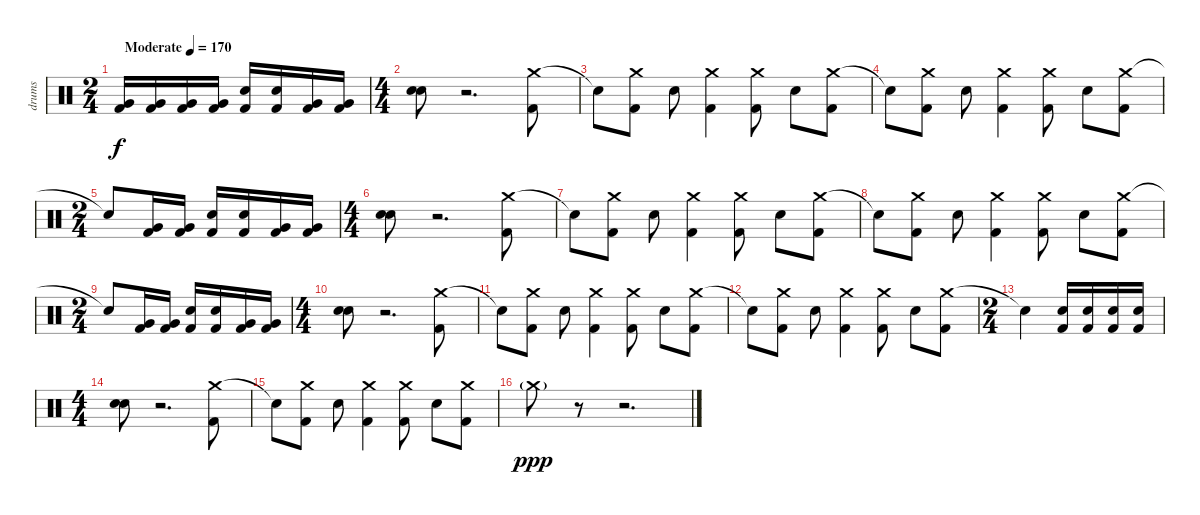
\track ("drums" "drums") {instrument percussion}
\staff {score}
\articulation defaults
\ts (2 4)
\tempo (170 "Moderate")
\clef neutral
\ks c
("Very Low Tom (hit)" "Kick (hit) 2").16{dy f} ("Very Low Tom (hit)" "Kick (hit) 2").16 ("Very Low Tom (hit)" "Kick (hit) 2").16 ("Very Low Tom (hit)" "Kick (hit) 2").16 ("Electric Snare (hit)" "Kick (hit) 2").16 ("Electric Snare (hit)" "Kick (hit) 2").16 ("Very Low Tom (hit)" "Kick (hit) 2").16 ("Very Low Tom (hit)" "Kick (hit) 2").16 |
\ts (4 4)
("Electric Snare (hit)" "Electric Snare (hit)").8 r.2{d} ("Crash medium (hit)" "Kick (hit) 2").8 |
"Snare (hit)"{t}.8 ("Crash medium (hit)" "Kick (hit) 2").8 "Electric Snare (hit)".8 ("Crash medium (hit)" "Kick (hit) 2").4 ("Crash medium (hit)" "Kick (hit) 2").8 "Electric Snare (hit)".8 ("Crash medium (hit)" "Kick (hit) 2").8 |
"Snare (hit)"{t}.8 ("Crash medium (hit)" "Kick (hit) 2").8 "Electric Snare (hit)".8 ("Crash medium (hit)" "Kick (hit) 2").4 ("Crash medium (hit)" "Kick (hit) 2").8 "Electric Snare (hit)".8 ("Crash medium (hit)" "Kick (hit) 2").8 |
\ts (2 4)
"Snare (hit)"{t}.8 ("Very Low Tom (hit)" "Kick (hit) 2").16 ("Very Low Tom (hit)" "Kick (hit) 2").16 ("Electric Snare (hit)" "Kick (hit) 2").16 ("Electric Snare (hit)" "Kick (hit) 2").16 ("Very Low Tom (hit)" "Kick (hit) 2").16 ("Very Low Tom (hit)" "Kick (hit) 2").16 |
\ts (4 4)
("Electric Snare (hit)" "Electric Snare (hit)").8 r.2{d} ("Crash medium (hit)" "Kick (hit) 2").8 |
"Snare (hit)"{t}.8 ("Crash medium (hit)" "Kick (hit) 2").8 "Electric Snare (hit)".8 ("Crash medium (hit)" "Kick (hit) 2").4 ("Crash medium (hit)" "Kick (hit) 2").8 "Electric Snare (hit)".8 ("Crash medium (hit)" "Kick (hit) 2").8 |
"Snare (hit)"{t}.8 ("Crash medium (hit)" "Kick (hit) 2").8 "Electric Snare (hit)".8 ("Crash medium (hit)" "Kick (hit) 2").4 ("Crash medium (hit)" "Kick (hit) 2").8 "Electric Snare (hit)".8 ("Crash medium (hit)" "Kick (hit) 2").8 |
\ts (2 4)
"Snare (hit)"{t}.8 ("Very Low Tom (hit)" "Kick (hit) 2").16 ("Very Low Tom (hit)" "Kick (hit) 2").16 ("Electric Snare (hit)" "Kick (hit) 2").16 ("Electric Snare (hit)" "Kick (hit) 2").16 ("Very Low Tom (hit)" "Kick (hit) 2").16 ("Very Low Tom (hit)" "Kick (hit) 2").16 |
\ts (4 4)
("Electric Snare (hit)" "Electric Snare (hit)").8 r.2{d} ("Crash medium (hit)" "Kick (hit) 2").8 |
"Snare (hit)"{t}.8 ("Crash medium (hit)" "Kick (hit) 2").8 "Electric Snare (hit)".8 ("Crash medium (hit)" "Kick (hit) 2").4 ("Crash medium (hit)" "Kick (hit) 2").8 "Electric Snare (hit)".8 ("Crash medium (hit)" "Kick (hit) 2").8 |
"Snare (hit)"{t}.8 ("Crash medium (hit)" "Kick (hit) 2").8 "Electric Snare (hit)".8 ("Crash medium (hit)" "Kick (hit) 2").4 ("Crash medium (hit)" "Kick (hit) 2").8 "Electric Snare (hit)".8 ("Crash medium (hit)" "Kick (hit) 2").8 |
\ts (2 4)
"Snare (hit)"{t}.4 ("Electric Snare (hit)" "Kick (hit) 2").16 ("Electric Snare (hit)" "Kick (hit) 2").16 ("Electric Snare (hit)" "Kick (hit) 2").16 ("Electric Snare (hit)" "Kick (hit) 2").16 |
\ts (4 4)
("Electric Snare (hit)" "Electric Snare (hit)").8 r.2{d} ("Crash medium (hit)" "Kick (hit) 2").8 |
"Snare (hit)"{t}.8 ("Crash medium (hit)" "Kick (hit) 2").8 "Electric Snare (hit)".8 ("Crash medium (hit)" "Kick (hit) 2").4 ("Crash medium (hit)" "Kick (hit) 2").8 "Electric Snare (hit)".8 ("Crash medium (hit)" "Kick (hit) 2").8 |
"Crash medium (hit)"{g}.8{dy ppp} r.8 r.2{d}
